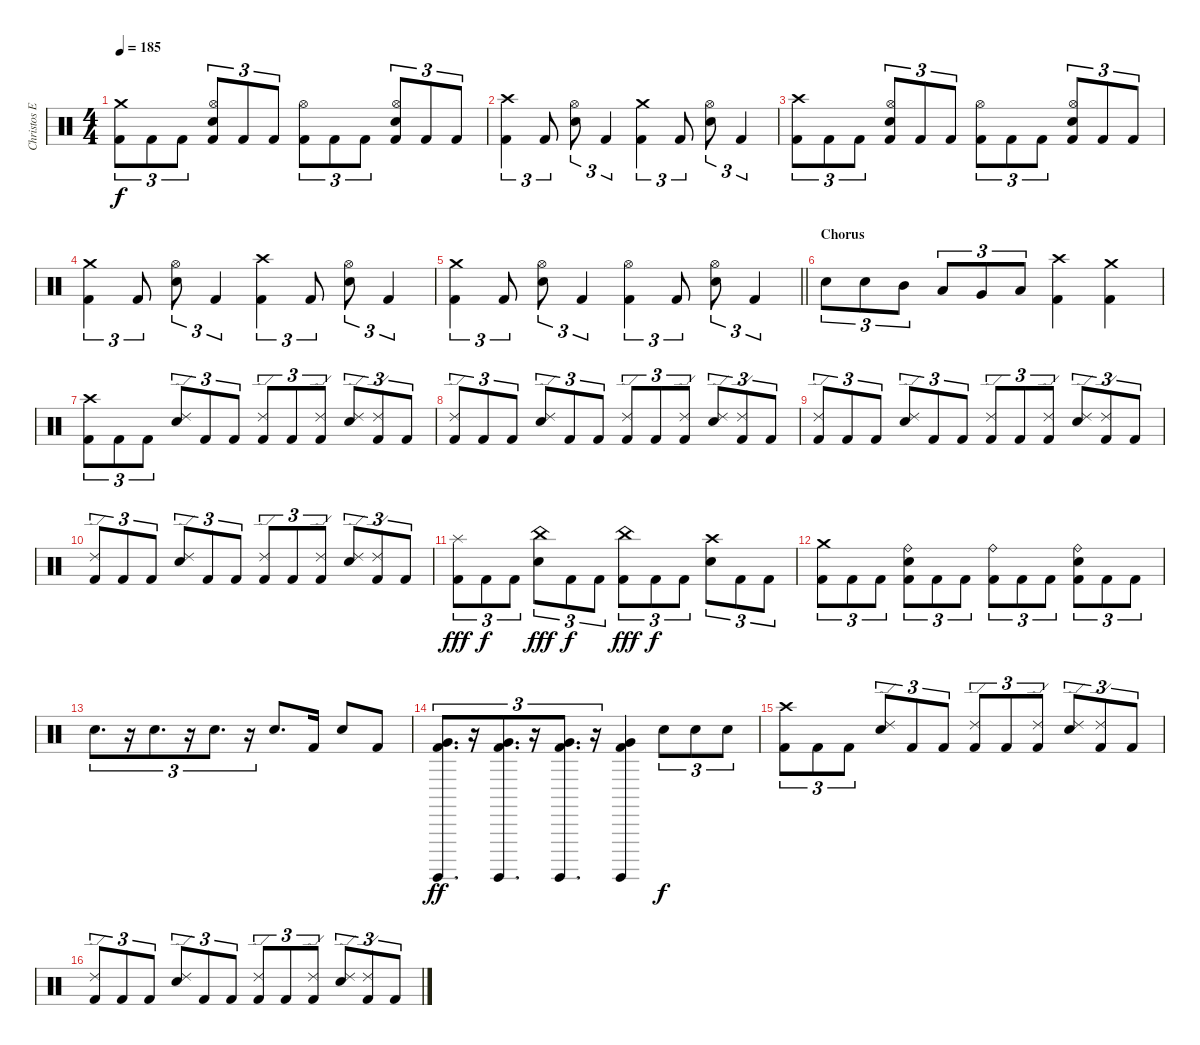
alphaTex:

\track ("Christos Ephitimiadis (drums)" "Christos E") {instrument percussion}
\staff {score}
\articulation defaults
\ts (4 4)
\tempo 185
\clef neutral
\ks c
("Crash medium (hit)" "Kick (hit) 2").8{tu (3 2) dy f} "Kick (hit) 2".8{tu (3 2)} "Kick (hit) 2".8{tu (3 2)} ("Hi-Hat (open)" "Snare (hit) 2" "Kick (hit) 2").8{tu (3 2)} "Kick (hit) 2".8{tu (3 2)} "Kick (hit) 2".8{tu (3 2)} ("Hi-Hat (open)" "Kick (hit) 2").8{tu (3 2)} "Kick (hit) 2".8{tu (3 2)} "Kick (hit) 2".8{tu (3 2)} ("Hi-Hat (open)" "Snare (hit) 2" "Kick (hit) 2").8{tu (3 2)} "Kick (hit) 2".8{tu (3 2)} "Kick (hit) 2".8{tu (3 2)} |
("Crash high (hit)" "Kick (hit) 2").4{tu (3 2)} "Kick (hit) 2".8{tu (3 2)} ("Hi-Hat (open)" "Snare (hit) 2").8{tu (3 2)} "Kick (hit) 2".4{tu (3 2)} ("Crash medium (hit)" "Kick (hit) 2").4{tu (3 2)} "Kick (hit) 2".8{tu (3 2)} ("Hi-Hat (open)" "Snare (hit) 2").8{tu (3 2)} "Kick (hit) 2".4{tu (3 2)} |
("Crash high (hit)" "Kick (hit) 2").8{tu (3 2)} "Kick (hit) 2".8{tu (3 2)} "Kick (hit) 2".8{tu (3 2)} ("Hi-Hat (open)" "Snare (hit) 2" "Kick (hit) 2").8{tu (3 2)} "Kick (hit) 2".8{tu (3 2)} "Kick (hit) 2".8{tu (3 2)} ("Hi-Hat (open)" "Kick (hit) 2").8{tu (3 2)} "Kick (hit) 2".8{tu (3 2)} "Kick (hit) 2".8{tu (3 2)} ("Hi-Hat (open)" "Snare (hit) 2" "Kick (hit) 2").8{tu (3 2)} "Kick (hit) 2".8{tu (3 2)} "Kick (hit) 2".8{tu (3 2)} |
("Crash medium (hit)" "Kick (hit) 2").4{tu (3 2)} "Kick (hit) 2".8{tu (3 2)} ("Hi-Hat (open)" "Snare (hit) 2").8{tu (3 2)} "Kick (hit) 2".4{tu (3 2)} ("Crash high (hit)" "Kick (hit) 2").4{tu (3 2)} "Kick (hit) 2".8{tu (3 2)} ("Hi-Hat (open)" "Snare (hit) 2").8{tu (3 2)} "Kick (hit) 2".4{tu (3 2)} |
\barLineRight lightlight
("Crash medium (hit)" "Kick (hit) 2").4{tu (3 2)} "Kick (hit) 2".8{tu (3 2)} ("Hi-Hat (open)" "Snare (hit) 2").8{tu (3 2)} "Kick (hit) 2".4{tu (3 2)} ("Hi-Hat (open)" "Kick (hit) 2").4{tu (3 2)} "Kick (hit) 2".8{tu (3 2)} ("Hi-Hat (open)" "Snare (hit) 2").8{tu (3 2)} "Kick (hit) 2".4{tu (3 2)} |
\section ("" "Chorus")
"Snare (hit) 2".8{tu (3 2)} "Snare (hit) 2".8{tu (3 2)} "Mid Tom (hit)".8{tu (3 2)} "Low Tom (hit)".8{tu (3 2)} "Very Low Tom (hit)".8{tu (3 2)} "Low Floor Tom (hit)".8{tu (3 2)} ("Crash high (hit)" "Kick (hit) 2").4 ("Crash medium (hit)" "Kick (hit) 2").4 |
("Crash high (hit)" "Kick (hit) 2").8{tu (3 2)} "Kick (hit) 2".8{tu (3 2)} "Kick (hit) 2".8{tu (3 2)} ("Ride (edge) 2" "Snare (hit) 2").8{tu (3 2)} "Kick (hit) 2".8{tu (3 2)} "Kick (hit) 2".8{tu (3 2)} ("Ride (edge) 2" "Kick (hit) 2").8{tu (3 2)} "Kick (hit) 2".8{tu (3 2)} ("Ride (edge) 2" "Kick (hit) 2").8{tu (3 2)} ("Ride (edge) 2" "Snare (hit) 2").8{tu (3 2)} ("Ride (edge) 2" "Kick (hit) 2").8{tu (3 2)} "Kick (hit) 2".8{tu (3 2)} |
("Ride (edge) 2" "Kick (hit) 2").8{tu (3 2)} "Kick (hit) 2".8{tu (3 2)} "Kick (hit) 2".8{tu (3 2)} ("Ride (edge) 2" "Snare (hit) 2").8{tu (3 2)} "Kick (hit) 2".8{tu (3 2)} "Kick (hit) 2".8{tu (3 2)} ("Ride (edge) 2" "Kick (hit) 2").8{tu (3 2)} "Kick (hit) 2".8{tu (3 2)} ("Ride (edge) 2" "Kick (hit) 2").8{tu (3 2)} ("Ride (edge) 2" "Snare (hit) 2").8{tu (3 2)} ("Ride (edge) 2" "Kick (hit) 2").8{tu (3 2)} "Kick (hit) 2".8{tu (3 2)} |
("Ride (edge) 2" "Kick (hit) 2").8{tu (3 2)} "Kick (hit) 2".8{tu (3 2)} "Kick (hit) 2".8{tu (3 2)} ("Ride (edge) 2" "Snare (hit) 2").8{tu (3 2)} "Kick (hit) 2".8{tu (3 2)} "Kick (hit) 2".8{tu (3 2)} ("Ride (edge) 2" "Kick (hit) 2").8{tu (3 2)} "Kick (hit) 2".8{tu (3 2)} ("Ride (edge) 2" "Kick (hit) 2").8{tu (3 2)} ("Ride (edge) 2" "Snare (hit) 2").8{tu (3 2)} ("Ride (edge) 2" "Kick (hit) 2").8{tu (3 2)} "Kick (hit) 2".8{tu (3 2)} |
("Ride (edge) 2" "Kick (hit) 2").8{tu (3 2)} "Kick (hit) 2".8{tu (3 2)} "Kick (hit) 2".8{tu (3 2)} ("Ride (edge) 2" "Snare (hit) 2").8{tu (3 2)} "Kick (hit) 2".8{tu (3 2)} "Kick (hit) 2".8{tu (3 2)} ("Ride (edge) 2" "Kick (hit) 2").8{tu (3 2)} "Kick (hit) 2".8{tu (3 2)} ("Ride (edge) 2" "Kick (hit) 2").8{tu (3 2)} ("Ride (edge) 2" "Snare (hit) 2").8{tu (3 2)} ("Ride (edge) 2" "Kick (hit) 2").8{tu (3 2)} "Kick (hit) 2".8{tu (3 2)} |
("Splash (hit)" "Kick (hit) 2").8{tu (3 2) dy fff} "Kick (hit) 2".8{tu (3 2) dy f} "Kick (hit) 2".8{tu (3 2)} ("China (hit)" "Snare (hit) 2").8{tu (3 2) dy fff} "Kick (hit) 2".8{tu (3 2) dy f} "Kick (hit) 2".8{tu (3 2)} ("China (hit)" "Kick (hit) 2").8{tu (3 2) dy fff} "Kick (hit) 2".8{tu (3 2) dy f} "Kick (hit) 2".8{tu (3 2)} ("Crash high (hit)" "Snare (hit) 2").8{tu (3 2)} "Kick (hit) 2".8{tu (3 2)} "Kick (hit) 2".8{tu (3 2)} |
("Crash medium (hit)" "Kick (hit) 2").8{tu (3 2)} "Kick (hit) 2".8{tu (3 2)} "Kick (hit) 2".8{tu (3 2)} ("Ride (bell)" "Snare (hit) 2" "Kick (hit) 2").8{tu (3 2)} "Kick (hit) 2".8{tu (3 2)} "Kick (hit) 2".8{tu (3 2)} ("Ride (bell)" "Kick (hit) 2").8{tu (3 2)} "Kick (hit) 2".8{tu (3 2)} "Kick (hit) 2".8{tu (3 2)} ("Ride (bell)" "Snare (hit) 2" "Kick (hit) 2").8{tu (3 2)} "Kick (hit) 2".8{tu (3 2)} "Kick (hit) 2".8{tu (3 2)} |
"Snare (hit) 2".8{d tu (3 2)} r.16{tu (3 2)} "Snare (hit) 2".8{d tu (3 2)} r.16{tu (3 2)} "Snare (hit) 2".8{d tu (3 2)} r.16{tu (3 2)} "Snare (hit) 2".8{d} "Kick (hit) 2".16 "Snare (hit) 2".8 "Kick (hit) 2".8 |
("Surdo (hit)" "Very Low Tom (hit)" "Kick (hit) 2").8{d tu (3 2) dy ff} r.16{tu (3 2)} ("Surdo (hit)" "Very Low Tom (hit)" "Kick (hit) 2").8{d tu (3 2)} r.16{tu (3 2)} ("Surdo (hit)" "Very Low Tom (hit)" "Kick (hit) 2").8{d tu (3 2)} r.16{tu (3 2)} ("Surdo (hit)" "Very Low Tom (hit)" "Kick (hit) 2").4 "Snare (hit) 2".8{tu (3 2) dy f} "Snare (hit) 2".8{tu (3 2)} "Snare (hit) 2".8{tu (3 2)} |
("Crash high (hit)" "Kick (hit) 2").8{tu (3 2)} "Kick (hit) 2".8{tu (3 2)} "Kick (hit) 2".8{tu (3 2)} ("Ride (edge) 2" "Snare (hit) 2").8{tu (3 2)} "Kick (hit) 2".8{tu (3 2)} "Kick (hit) 2".8{tu (3 2)} ("Ride (edge) 2" "Kick (hit) 2").8{tu (3 2)} "Kick (hit) 2".8{tu (3 2)} ("Ride (edge) 2" "Kick (hit) 2").8{tu (3 2)} ("Ride (edge) 2" "Snare (hit) 2").8{tu (3 2)} ("Ride (edge) 2" "Kick (hit) 2").8{tu (3 2)} "Kick (hit) 2".8{tu (3 2)} |
("Ride (edge) 2" "Kick (hit) 2").8{tu (3 2)} "Kick (hit) 2".8{tu (3 2)} "Kick (hit) 2".8{tu (3 2)} ("Ride (edge) 2" "Snare (hit) 2").8{tu (3 2)} "Kick (hit) 2".8{tu (3 2)} "Kick (hit) 2".8{tu (3 2)} ("Ride (edge) 2" "Kick (hit) 2").8{tu (3 2)} "Kick (hit) 2".8{tu (3 2)} ("Ride (edge) 2" "Kick (hit) 2").8{tu (3 2)} ("Ride (edge) 2" "Snare (hit) 2").8{tu (3 2)} ("Ride (edge) 2" "Kick (hit) 2").8{tu (3 2)} "Kick (hit) 2".8{tu (3 2)}
